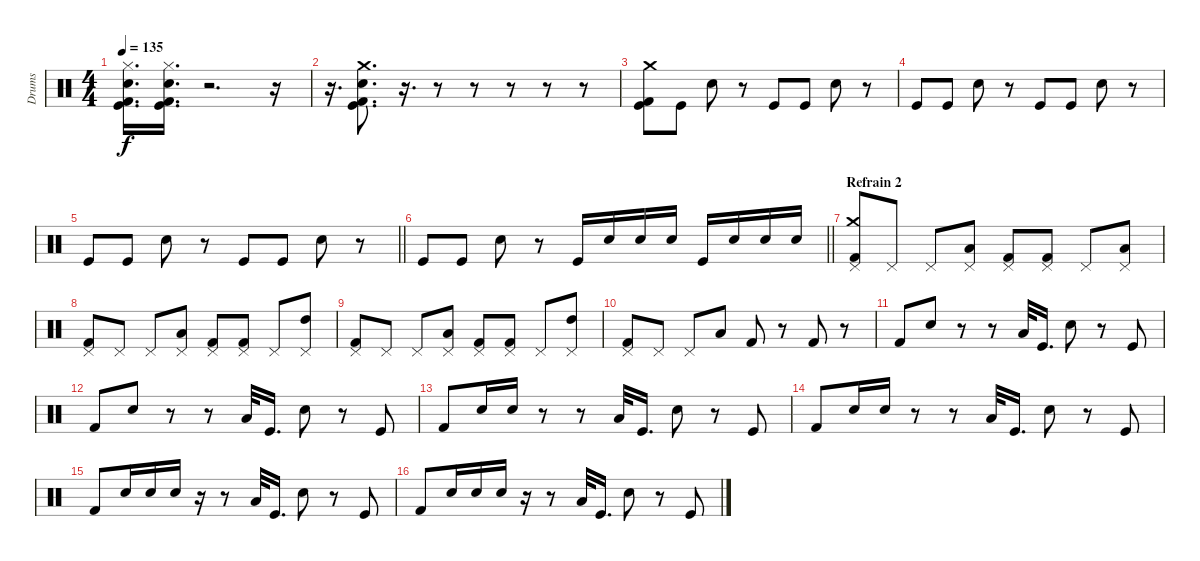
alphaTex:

\track ("Drums" "Drums") {instrument percussion}
\staff {score}
\articulation defaults
\ts (4 4)
\tempo 135
\clef neutral
\ks c
("Kick (hit)" "Snare (hit) 2" "Kick (hit) 2" "Hi-Hat (closed)").16{d dy f} ("Kick (hit)" "Snare (hit) 2" "Kick (hit) 2" "Hi-Hat (closed)").16{d} r.2{d} r.16 |
r.16{d} ("Kick (hit)" "Snare (hit) 2" "Kick (hit) 2" "Crash medium (hit)").8{d} r.16{d} r.8 r.8 r.8 r.8 r.8 |
("Kick (hit)" "Kick (hit) 2" "Crash medium (hit)").8 "Kick (hit)".8 "Snare (hit) 2".8 r.8 "Kick (hit)".8 "Kick (hit)".8 "Snare (hit) 2".8 r.8 |
"Kick (hit)".8 "Kick (hit)".8 "Snare (hit) 2".8 r.8 "Kick (hit)".8 "Kick (hit)".8 "Snare (hit) 2".8 r.8 |
\barLineRight lightlight "Kick (hit)".8 "Kick (hit)".8 "Snare (hit) 2".8
r.8 "Kick (hit)".8 "Kick (hit)".8 "Snare (hit) 2".8 r.8 |
\barLineRight lightlight "Kick (hit)".8 "Kick (hit)".8 "Snare (hit) 2".8
r.8 "Kick (hit)".16 "Snare (hit) 2".16 "Snare (hit) 2".16 "Snare (hit) 2".16{beam split} "Kick (hit)".16 "Snare (hit) 2".16{beam merge} "Snare (hit) 2".16 "Snare (hit) 2".16 |
\section ("" "Refrain 2")
("Kick (hit) 2" "Crash medium (hit)" "Pedal Hi-Hat (hit)").8 "Pedal Hi-Hat (hit)".8 "Pedal Hi-Hat (hit)".8 ("Low Tom (hit)" "Pedal Hi-Hat (hit)").8 ("Kick (hit) 2" "Pedal Hi-Hat (hit)").8 ("Kick (hit) 2" "Pedal Hi-Hat (hit)").8 "Pedal Hi-Hat (hit)".8 ("Low Tom (hit)" "Pedal Hi-Hat (hit)").8 |
("Kick (hit) 2" "Pedal Hi-Hat (hit)").8 "Pedal Hi-Hat (hit)".8 "Pedal Hi-Hat (hit)".8 ("Low Tom (hit)" "Pedal Hi-Hat (hit)").8 ("Kick (hit) 2" "Pedal Hi-Hat (hit)").8 ("Kick (hit) 2" "Pedal Hi-Hat (hit)").8 "Pedal Hi-Hat (hit)".8 ("High Tom (hit)" "Pedal Hi-Hat (hit)").8 |
("Kick (hit) 2" "Pedal Hi-Hat (hit)").8 "Pedal Hi-Hat (hit)".8 "Pedal Hi-Hat (hit)".8 ("Low Tom (hit)" "Pedal Hi-Hat (hit)").8 ("Kick (hit) 2" "Pedal Hi-Hat (hit)").8 ("Kick (hit) 2" "Pedal Hi-Hat (hit)").8 "Pedal Hi-Hat (hit)".8 ("High Tom (hit)" "Pedal Hi-Hat (hit)").8 |
("Kick (hit) 2" "Pedal Hi-Hat (hit)").8 "Pedal Hi-Hat (hit)".8 "Pedal Hi-Hat (hit)".8 "Low Tom (hit)".8 "Kick (hit) 2".8 r.8 "Kick (hit) 2".8 r.8 |
"Kick (hit) 2".8 "Snare (hit) 2".8 r.8 r.8 "Low Tom (hit)".32 "Kick (hit)".16{d beam split} "Snare (hit) 2".8 r.8 "Kick (hit)".8 |
"Kick (hit) 2".8 "Snare (hit) 2".8 r.8 r.8 "Low Tom (hit)".32 "Kick (hit)".16{d beam split} "Snare (hit) 2".8 r.8 "Kick (hit)".8 |
"Kick (hit) 2".8 "Snare (hit) 2".16 "Snare (hit) 2".16 r.8 r.8 "Low Tom (hit)".32 "Kick (hit)".16{d beam split} "Snare (hit) 2".8 r.8 "Kick (hit)".8 |
"Kick (hit) 2".8 "Snare (hit) 2".16 "Snare (hit) 2".16 r.8 r.8 "Low Tom (hit)".32 "Kick (hit)".16{d beam split} "Snare (hit) 2".8 r.8 "Kick (hit)".8 |
"Kick (hit) 2".8 "Snare (hit) 2".16 "Snare (hit) 2".16{beam merge} "Snare (hit) 2".16 r.16 r.8 "Low Tom (hit)".32 "Kick (hit)".16{d beam split} "Snare (hit) 2".8 r.8 "Kick (hit)".8 |
"Kick (hit) 2".8 "Snare (hit) 2".16 "Snare (hit) 2".16{beam merge} "Snare (hit) 2".16 r.16 r.8 "Low Tom (hit)".32 "Kick (hit)".16{d beam split} "Snare (hit) 2".8 r.8 "Kick (hit)".8
